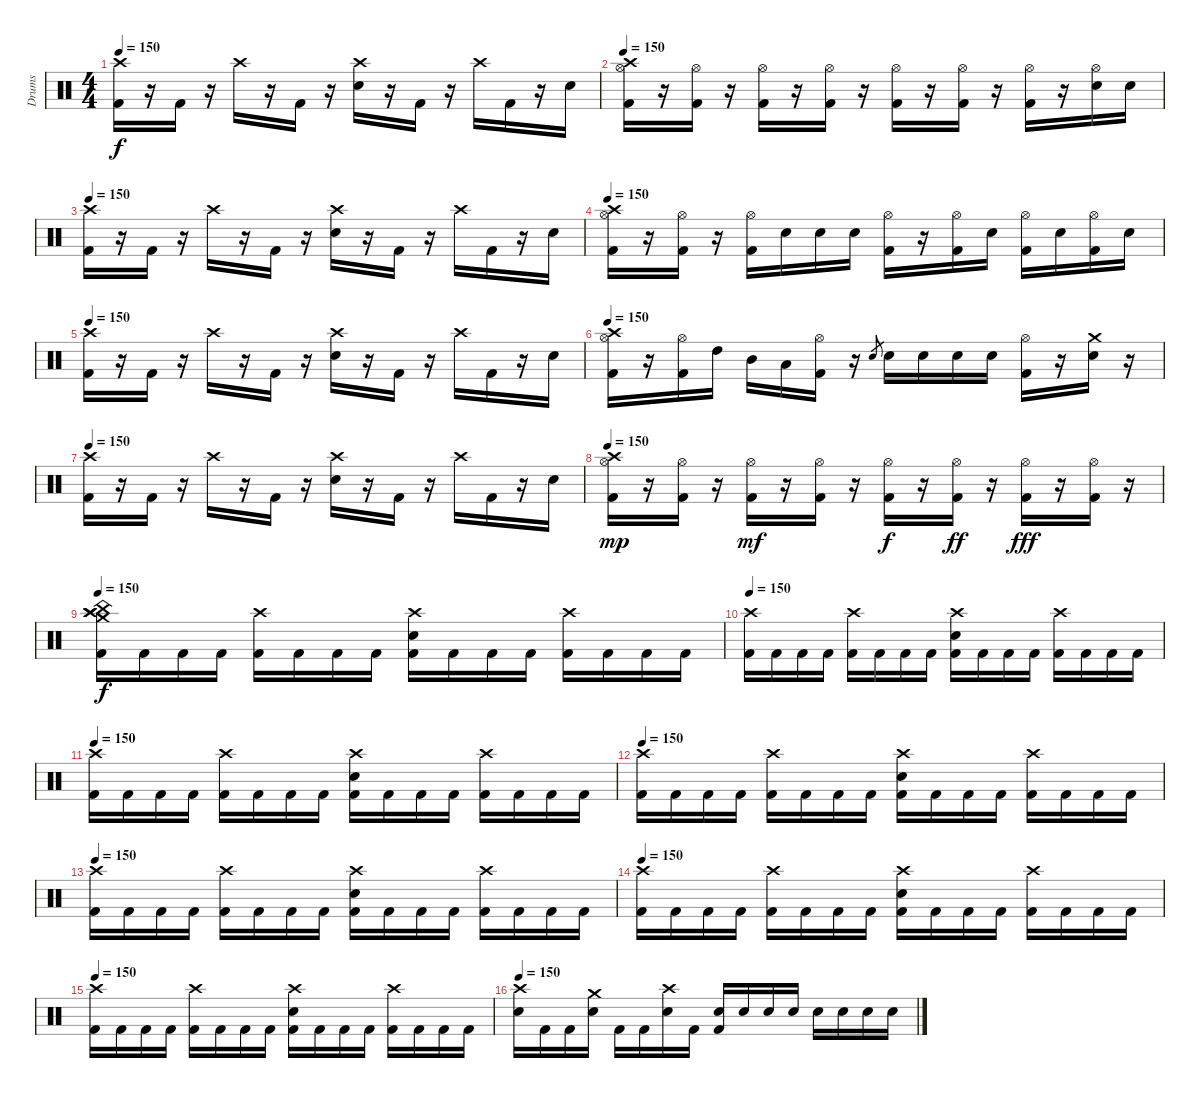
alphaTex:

\track ("Drums" "Drums") {instrument percussion}
\staff {score}
\articulation defaults
\ts (4 4)
\tempo 150
\clef neutral
\ks c
("Crash high (hit)" "Kick (hit) 2").16{dy f} r.16 "Kick (hit) 2".16 r.16 "Crash high (hit)".16 r.16 "Kick (hit) 2".16 r.16 ("Crash high (hit)" "Electric Snare (hit)").16 r.16 "Kick (hit) 2".16 r.16 "Crash high (hit)".16 "Kick (hit) 2".16 r.16 "Electric Snare (hit)".16 |
\tempo 150
("Crash high (hit)" "Hi-Hat (open)" "Kick (hit) 2").16 r.16 ("Hi-Hat (open)" "Kick (hit) 2").16 r.16 ("Hi-Hat (open)" "Kick (hit) 2").16 r.16 ("Hi-Hat (open)" "Kick (hit) 2").16 r.16 ("Hi-Hat (open)" "Kick (hit) 2").16 r.16 ("Hi-Hat (open)" "Kick (hit) 2").16 r.16 ("Hi-Hat (open)" "Kick (hit) 2").16 r.16 ("Hi-Hat (open)" "Electric Snare (hit)").16 "Electric Snare (hit)".16 |
\tempo 150
("Crash high (hit)" "Kick (hit) 2").16 r.16 "Kick (hit) 2".16 r.16 "Crash high (hit)".16 r.16 "Kick (hit) 2".16 r.16 ("Crash high (hit)" "Electric Snare (hit)").16 r.16 "Kick (hit) 2".16 r.16 "Crash high (hit)".16 "Kick (hit) 2".16 r.16 "Electric Snare (hit)".16 |
\tempo 150
("Crash high (hit)" "Hi-Hat (open)" "Kick (hit) 2").16 r.16 ("Hi-Hat (open)" "Kick (hit) 2").16 r.16 ("Hi-Hat (open)" "Kick (hit) 2").16 "Electric Snare (hit)".16 "Electric Snare (hit)".16 "Electric Snare (hit)".16 ("Hi-Hat (open)" "Kick (hit) 2").16 r.16 ("Hi-Hat (open)" "Kick (hit) 2").16 "Electric Snare (hit)".16 ("Hi-Hat (open)" "Kick (hit) 2").16 "Electric Snare (hit)".16 ("Hi-Hat (open)" "Kick (hit) 2").16 "Electric Snare (hit)".16 |
\tempo 150
("Crash high (hit)" "Kick (hit) 2").16 r.16 "Kick (hit) 2".16 r.16 "Crash high (hit)".16 r.16 "Kick (hit) 2".16 r.16 ("Crash high (hit)" "Electric Snare (hit)").16 r.16 "Kick (hit) 2".16 r.16 "Crash high (hit)".16 "Kick (hit) 2".16 r.16 "Electric Snare (hit)".16 |
\tempo 150
("Crash high (hit)" "Hi-Hat (open)" "Kick (hit) 2").16 r.16 ("Hi-Hat (open)" "Kick (hit) 2").16 "High Tom (hit)".16 "Mid Tom (hit)".16 "Low Tom (hit)".16 ("Hi-Hat (open)" "Kick (hit) 2").16 r.16 "Electric Snare (hit)".8{gr} "Electric Snare (hit)".16 "Electric Snare (hit)".16 "Electric Snare (hit)".16 "Electric Snare (hit)".16 ("Hi-Hat (open)" "Kick (hit) 2").16 r.16 ("Crash medium (hit)" "Electric Snare (hit)").16 r.16 |
\tempo 150
("Crash high (hit)" "Kick (hit) 2").16 r.16 "Kick (hit) 2".16 r.16 "Crash high (hit)".16 r.16 "Kick (hit) 2".16 r.16 ("Crash high (hit)" "Electric Snare (hit)").16 r.16 "Kick (hit) 2".16 r.16 "Crash high (hit)".16 "Kick (hit) 2".16 r.16 "Electric Snare (hit)".16 |
\tempo 150
("Crash high (hit)" "Hi-Hat (open)" "Kick (hit) 2").16{dy mp} r.16 ("Hi-Hat (open)" "Kick (hit) 2").16 r.16 ("Hi-Hat (open)" "Kick (hit) 2").16{dy mf} r.16 ("Hi-Hat (open)" "Kick (hit) 2").16 r.16 ("Hi-Hat (open)" "Kick (hit) 2").16{dy f} r.16 ("Hi-Hat (open)" "Kick (hit) 2").16{dy ff} r.16 ("Hi-Hat (open)" "Kick (hit) 2").16{dy fff} r.16 ("Hi-Hat (open)" "Kick (hit) 2").16 r.16 |
\tempo 150
("Crash high (hit)" "Crash medium (hit)" "Crash high (hit)" "China (hit)" "Kick (hit) 2").16{dy f} "Kick (hit) 2".16 "Kick (hit) 2".16 "Kick (hit) 2".16 ("Crash high (hit)" "Kick (hit) 2").16 "Kick (hit) 2".16 "Kick (hit) 2".16 "Kick (hit) 2".16 ("Crash high (hit)" "Electric Snare (hit)" "Kick (hit) 2").16 "Kick (hit) 2".16 "Kick (hit) 2".16 "Kick (hit) 2".16 ("Crash high (hit)" "Kick (hit) 2").16 "Kick (hit) 2".16 "Kick (hit) 2".16 "Kick (hit) 2".16 |
\tempo 150
("Crash high (hit)" "Kick (hit) 2").16 "Kick (hit) 2".16 "Kick (hit) 2".16 "Kick (hit) 2".16 ("Crash high (hit)" "Kick (hit) 2").16 "Kick (hit) 2".16 "Kick (hit) 2".16 "Kick (hit) 2".16 ("Crash high (hit)" "Electric Snare (hit)" "Kick (hit) 2").16 "Kick (hit) 2".16 "Kick (hit) 2".16 "Kick (hit) 2".16 ("Crash high (hit)" "Kick (hit) 2").16 "Kick (hit) 2".16 "Kick (hit) 2".16 "Kick (hit) 2".16 |
\tempo 150
("Crash high (hit)" "Kick (hit) 2").16 "Kick (hit) 2".16 "Kick (hit) 2".16 "Kick (hit) 2".16 ("Crash high (hit)" "Kick (hit) 2").16 "Kick (hit) 2".16 "Kick (hit) 2".16 "Kick (hit) 2".16 ("Crash high (hit)" "Electric Snare (hit)" "Kick (hit) 2").16 "Kick (hit) 2".16 "Kick (hit) 2".16 "Kick (hit) 2".16 ("Crash high (hit)" "Kick (hit) 2").16 "Kick (hit) 2".16 "Kick (hit) 2".16 "Kick (hit) 2".16 |
\tempo 150
("Crash high (hit)" "Kick (hit) 2").16 "Kick (hit) 2".16 "Kick (hit) 2".16 "Kick (hit) 2".16 ("Crash high (hit)" "Kick (hit) 2").16 "Kick (hit) 2".16 "Kick (hit) 2".16 "Kick (hit) 2".16 ("Crash high (hit)" "Electric Snare (hit)" "Kick (hit) 2").16 "Kick (hit) 2".16 "Kick (hit) 2".16 "Kick (hit) 2".16 ("Crash high (hit)" "Kick (hit) 2").16 "Kick (hit) 2".16 "Kick (hit) 2".16 "Kick (hit) 2".16 |
\tempo 150
("Crash high (hit)" "Kick (hit) 2").16 "Kick (hit) 2".16 "Kick (hit) 2".16 "Kick (hit) 2".16 ("Crash high (hit)" "Kick (hit) 2").16 "Kick (hit) 2".16 "Kick (hit) 2".16 "Kick (hit) 2".16 ("Crash high (hit)" "Electric Snare (hit)" "Kick (hit) 2").16 "Kick (hit) 2".16 "Kick (hit) 2".16 "Kick (hit) 2".16 ("Crash high (hit)" "Kick (hit) 2").16 "Kick (hit) 2".16 "Kick (hit) 2".16 "Kick (hit) 2".16 |
\tempo 150
("Crash high (hit)" "Kick (hit) 2").16 "Kick (hit) 2".16 "Kick (hit) 2".16 "Kick (hit) 2".16 ("Crash high (hit)" "Kick (hit) 2").16 "Kick (hit) 2".16 "Kick (hit) 2".16 "Kick (hit) 2".16 ("Crash high (hit)" "Electric Snare (hit)" "Kick (hit) 2").16 "Kick (hit) 2".16 "Kick (hit) 2".16 "Kick (hit) 2".16 ("Crash high (hit)" "Kick (hit) 2").16 "Kick (hit) 2".16 "Kick (hit) 2".16 "Kick (hit) 2".16 |
\tempo 150
("Crash high (hit)" "Kick (hit) 2").16 "Kick (hit) 2".16 "Kick (hit) 2".16 "Kick (hit) 2".16 ("Crash high (hit)" "Kick (hit) 2").16 "Kick (hit) 2".16 "Kick (hit) 2".16 "Kick (hit) 2".16 ("Crash high (hit)" "Electric Snare (hit)" "Kick (hit) 2").16 "Kick (hit) 2".16 "Kick (hit) 2".16 "Kick (hit) 2".16 ("Crash high (hit)" "Kick (hit) 2").16 "Kick (hit) 2".16 "Kick (hit) 2".16 "Kick (hit) 2".16 |
\tempo 150
("Crash high (hit)" "Electric Snare (hit)").16 "Kick (hit) 2".16 "Kick (hit) 2".16 ("Crash medium (hit)" "Electric Snare (hit)").16 "Kick (hit) 2".16 "Kick (hit) 2".16 ("Crash high (hit)" "Electric Snare (hit)").16 "Kick (hit) 2".16 ("Electric Snare (hit)" "Kick (hit) 2").16 "Electric Snare (hit)".16 "Electric Snare (hit)".16 "Electric Snare (hit)".16 "Electric Snare (hit)".16 "Electric Snare (hit)".16 "Electric Snare (hit)".16 "Electric Snare (hit)".16
